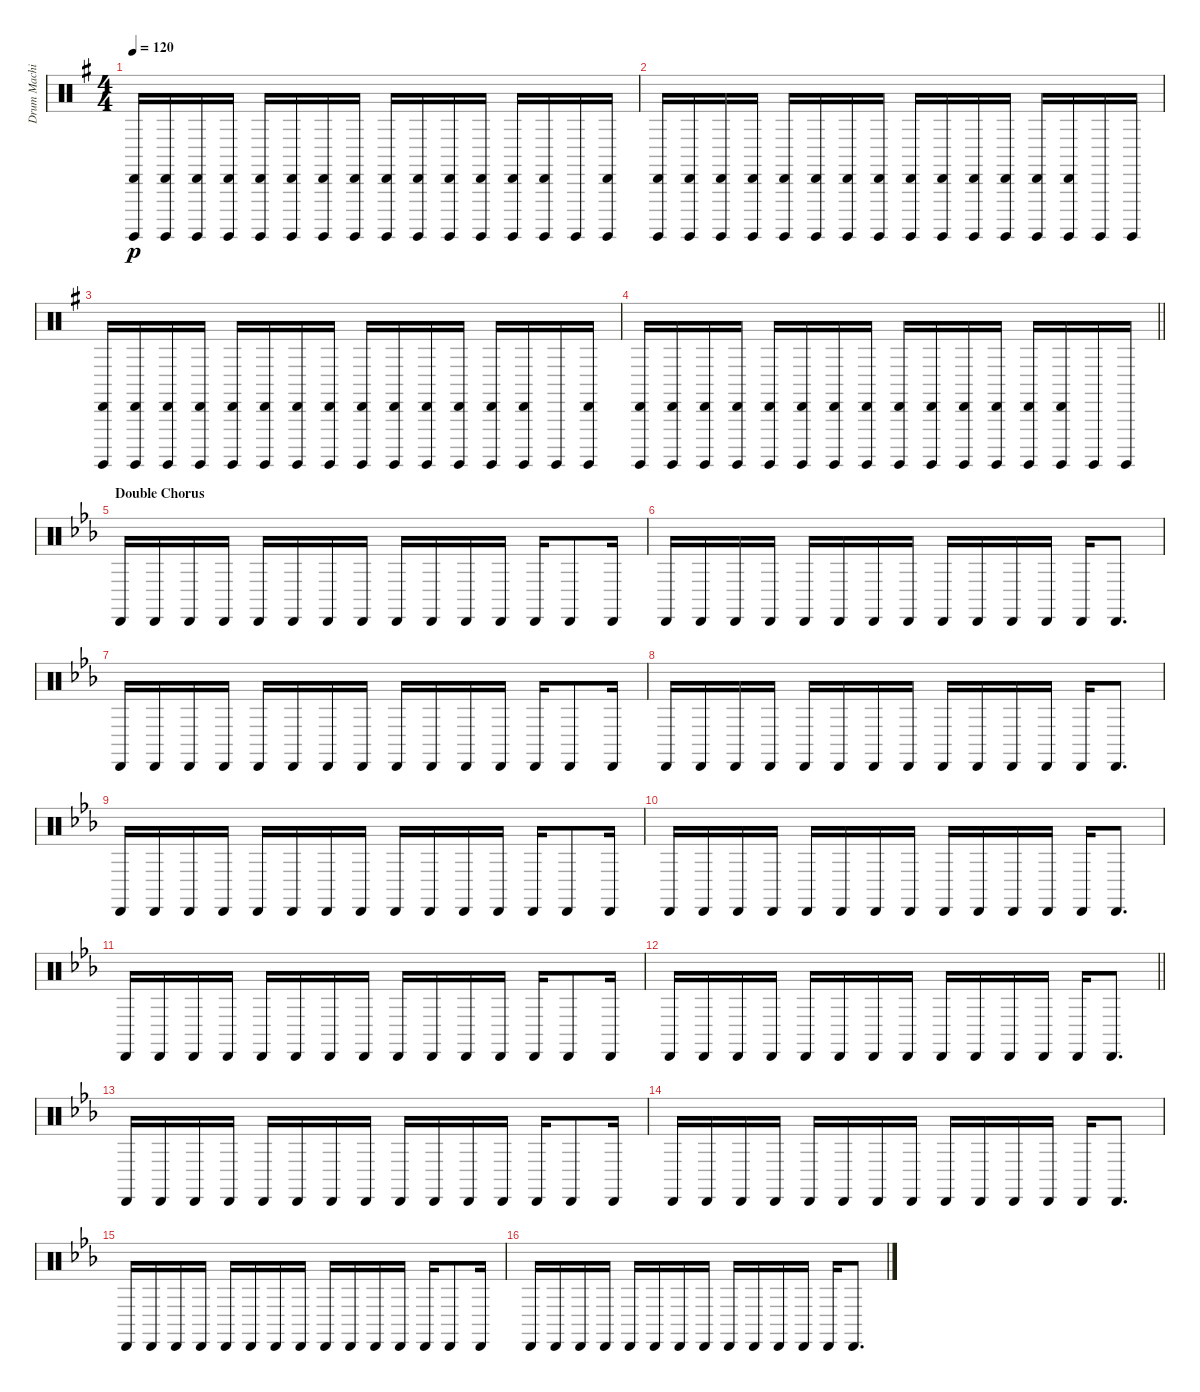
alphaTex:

\track ("Drum Machine" "Drum Machi") {instrument percussion}
\staff {score}
\articulation defaults
\ts (4 4)
\tempo 120
\clef neutral
\ks g
("Cabasa (hit)" "Surdo (hit)").16{dy p} ("Cabasa (hit)" "Surdo (hit)").16 ("Cabasa (hit)" "Surdo (hit)").16 ("Cabasa (hit)" "Surdo (hit)").16 ("Cabasa (hit)" "Surdo (hit)").16 ("Cabasa (hit)" "Surdo (hit)").16 ("Cabasa (hit)" "Surdo (hit)").16 ("Cabasa (hit)" "Surdo (hit)").16 ("Cabasa (hit)" "Surdo (hit)").16 ("Cabasa (hit)" "Surdo (hit)").16 ("Cabasa (hit)" "Surdo (hit)").16 ("Cabasa (hit)" "Surdo (hit)").16 ("Cabasa (hit)" "Surdo (hit)").16 ("Cabasa (hit)" "Surdo (hit)").16 "Surdo (hit)".16 ("Cabasa (hit)" "Surdo (hit)").16 |
("Cabasa (hit)" "Surdo (hit)").16 ("Cabasa (hit)" "Surdo (hit)").16 ("Cabasa (hit)" "Surdo (hit)").16 ("Cabasa (hit)" "Surdo (hit)").16 ("Cabasa (hit)" "Surdo (hit)").16 ("Cabasa (hit)" "Surdo (hit)").16 ("Cabasa (hit)" "Surdo (hit)").16 ("Cabasa (hit)" "Surdo (hit)").16 ("Cabasa (hit)" "Surdo (hit)").16 ("Cabasa (hit)" "Surdo (hit)").16 ("Cabasa (hit)" "Surdo (hit)").16 ("Cabasa (hit)" "Surdo (hit)").16 ("Cabasa (hit)" "Surdo (hit)").16 ("Cabasa (hit)" "Surdo (hit)").16 "Surdo (hit)".16 "Surdo (hit)".16 |
("Cabasa (hit)" "Surdo (hit)").16 ("Cabasa (hit)" "Surdo (hit)").16 ("Cabasa (hit)" "Surdo (hit)").16 ("Cabasa (hit)" "Surdo (hit)").16 ("Cabasa (hit)" "Surdo (hit)").16 ("Cabasa (hit)" "Surdo (hit)").16 ("Cabasa (hit)" "Surdo (hit)").16 ("Cabasa (hit)" "Surdo (hit)").16 ("Cabasa (hit)" "Surdo (hit)").16 ("Cabasa (hit)" "Surdo (hit)").16 ("Cabasa (hit)" "Surdo (hit)").16 ("Cabasa (hit)" "Surdo (hit)").16 ("Cabasa (hit)" "Surdo (hit)").16 ("Cabasa (hit)" "Surdo (hit)").16 "Surdo (hit)".16 ("Cabasa (hit)" "Surdo (hit)").16 |
\barLineRight lightlight
("Cabasa (hit)" "Surdo (hit)").16 ("Cabasa (hit)" "Surdo (hit)").16 ("Cabasa (hit)" "Surdo (hit)").16 ("Cabasa (hit)" "Surdo (hit)").16 ("Cabasa (hit)" "Surdo (hit)").16 ("Cabasa (hit)" "Surdo (hit)").16 ("Cabasa (hit)" "Surdo (hit)").16 ("Cabasa (hit)" "Surdo (hit)").16 ("Cabasa (hit)" "Surdo (hit)").16 ("Cabasa (hit)" "Surdo (hit)").16 ("Cabasa (hit)" "Surdo (hit)").16 ("Cabasa (hit)" "Surdo (hit)").16 ("Cabasa (hit)" "Surdo (hit)").16 ("Cabasa (hit)" "Surdo (hit)").16 "Surdo (hit)".16 "Surdo (hit)".16 |
\section ("" "Double Chorus")
\ks eb "Cabasa (hit)".16 "Cabasa (hit)".16 "Cabasa (hit)".16 "Cabasa (hit)".16 "Cabasa (hit)".16 "Cabasa (hit)".16 "Cabasa (hit)".16 "Cabasa (hit)".16 "Cabasa (hit)".16 "Cabasa (hit)".16 "Cabasa (hit)".16 "Cabasa (hit)".16 "Cabasa (hit)".16 "Cabasa (hit)".8 "Cabasa (hit)".16
|
"Cabasa (hit)".16 "Cabasa (hit)".16 "Cabasa (hit)".16 "Cabasa (hit)".16 "Cabasa (hit)".16 "Cabasa (hit)".16 "Cabasa (hit)".16 "Cabasa (hit)".16 "Cabasa (hit)".16 "Cabasa (hit)".16 "Cabasa (hit)".16 "Cabasa (hit)".16 "Cabasa (hit)".16 "Cabasa (hit)".8{d} |
"Cabasa (hit)".16 "Cabasa (hit)".16 "Cabasa (hit)".16 "Cabasa (hit)".16 "Cabasa (hit)".16 "Cabasa (hit)".16 "Cabasa (hit)".16 "Cabasa (hit)".16 "Cabasa (hit)".16 "Cabasa (hit)".16 "Cabasa (hit)".16 "Cabasa (hit)".16 "Cabasa (hit)".16 "Cabasa (hit)".8 "Cabasa (hit)".16 |
"Cabasa (hit)".16 "Cabasa (hit)".16 "Cabasa (hit)".16 "Cabasa (hit)".16 "Cabasa (hit)".16 "Cabasa (hit)".16 "Cabasa (hit)".16 "Cabasa (hit)".16 "Cabasa (hit)".16 "Cabasa (hit)".16 "Cabasa (hit)".16 "Cabasa (hit)".16 "Cabasa (hit)".16 "Cabasa (hit)".8{d} |
"Cabasa (hit)".16 "Cabasa (hit)".16 "Cabasa (hit)".16 "Cabasa (hit)".16 "Cabasa (hit)".16 "Cabasa (hit)".16 "Cabasa (hit)".16 "Cabasa (hit)".16 "Cabasa (hit)".16 "Cabasa (hit)".16 "Cabasa (hit)".16 "Cabasa (hit)".16 "Cabasa (hit)".16 "Cabasa (hit)".8 "Cabasa (hit)".16 |
"Cabasa (hit)".16 "Cabasa (hit)".16 "Cabasa (hit)".16 "Cabasa (hit)".16 "Cabasa (hit)".16 "Cabasa (hit)".16 "Cabasa (hit)".16 "Cabasa (hit)".16 "Cabasa (hit)".16 "Cabasa (hit)".16 "Cabasa (hit)".16 "Cabasa (hit)".16 "Cabasa (hit)".16 "Cabasa (hit)".8{d} |
"Cabasa (hit)".16 "Cabasa (hit)".16 "Cabasa (hit)".16 "Cabasa (hit)".16 "Cabasa (hit)".16 "Cabasa (hit)".16 "Cabasa (hit)".16 "Cabasa (hit)".16 "Cabasa (hit)".16 "Cabasa (hit)".16 "Cabasa (hit)".16 "Cabasa (hit)".16 "Cabasa (hit)".16 "Cabasa (hit)".8 "Cabasa (hit)".16 |
\barLineRight lightlight "Cabasa (hit)".16 "Cabasa (hit)".16 "Cabasa (hit)".16 "Cabasa (hit)".16 "Cabasa (hit)".16 "Cabasa (hit)".16 "Cabasa (hit)".16 "Cabasa (hit)".16 "Cabasa (hit)".16 "Cabasa (hit)".16 "Cabasa (hit)".16 "Cabasa (hit)".16 "Cabasa (hit)".16 "Cabasa (hit)".8{d}
|
"Cabasa (hit)".16 "Cabasa (hit)".16 "Cabasa (hit)".16 "Cabasa (hit)".16 "Cabasa (hit)".16 "Cabasa (hit)".16 "Cabasa (hit)".16 "Cabasa (hit)".16 "Cabasa (hit)".16 "Cabasa (hit)".16 "Cabasa (hit)".16 "Cabasa (hit)".16 "Cabasa (hit)".16 "Cabasa (hit)".8 "Cabasa (hit)".16 |
"Cabasa (hit)".16 "Cabasa (hit)".16 "Cabasa (hit)".16 "Cabasa (hit)".16 "Cabasa (hit)".16 "Cabasa (hit)".16 "Cabasa (hit)".16 "Cabasa (hit)".16 "Cabasa (hit)".16 "Cabasa (hit)".16 "Cabasa (hit)".16 "Cabasa (hit)".16 "Cabasa (hit)".16 "Cabasa (hit)".8{d} |
"Cabasa (hit)".16 "Cabasa (hit)".16 "Cabasa (hit)".16 "Cabasa (hit)".16 "Cabasa (hit)".16 "Cabasa (hit)".16 "Cabasa (hit)".16 "Cabasa (hit)".16 "Cabasa (hit)".16 "Cabasa (hit)".16 "Cabasa (hit)".16 "Cabasa (hit)".16 "Cabasa (hit)".16 "Cabasa (hit)".8 "Cabasa (hit)".16 |
"Cabasa (hit)".16 "Cabasa (hit)".16 "Cabasa (hit)".16 "Cabasa (hit)".16 "Cabasa (hit)".16 "Cabasa (hit)".16 "Cabasa (hit)".16 "Cabasa (hit)".16 "Cabasa (hit)".16 "Cabasa (hit)".16 "Cabasa (hit)".16 "Cabasa (hit)".16 "Cabasa (hit)".16 "Cabasa (hit)".8{d}
